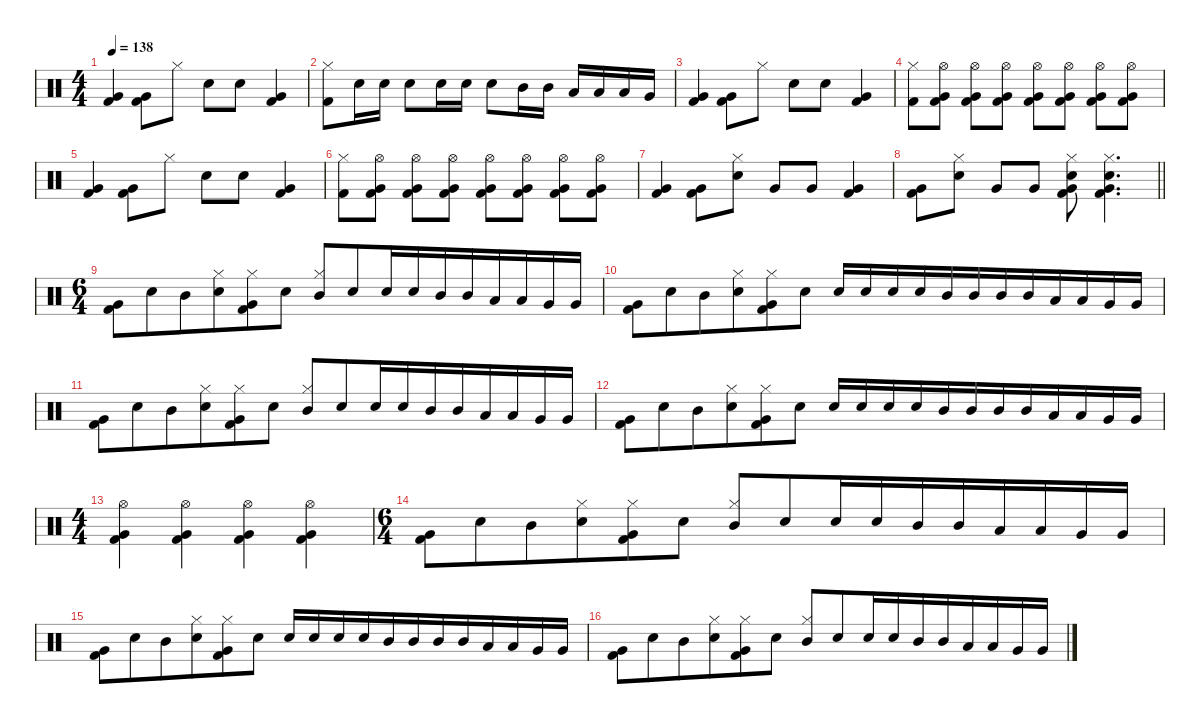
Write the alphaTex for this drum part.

\defaultSystemsLayout 4
\hideDynamics
\bracketExtendMode nobrackets
\singleTrackTrackNamePolicy hidden
\multiTrackTrackNamePolicy hidden
\otherSystemsTrackNameOrientation horizontal
\track ("Drums" "drm.") {instrument percussion}
\staff {score}
\articulation defaults
\ts (4 4)
\tempo 138
\clef neutral
\ks c
("Very Low Tom (hit)" "Kick (hit) 2").4{dy fff beam Up} ("Very Low Tom (hit)" "Kick (hit) 2").8{dy mp beam Down} "Hi-Hat (closed)".8{dy fff beam Down} "Snare (hit) 2".8{dy f beam Down} "Snare (hit) 2".8{dy mp beam Down} ("Very Low Tom (hit)" "Kick (hit) 2").4{beam Up} |
("Hi-Hat (closed)" "Kick (hit) 2").8{beam Down} "Snare (hit) 2".16{dy f beam Down} "Snare (hit) 2".16{beam Down} "Snare (hit) 2".8{beam Down} "Snare (hit) 2".16{beam Down} "Snare (hit) 2".16{beam Down} "Snare (hit) 2".8{beam Down} "Mid Tom (hit)".16{beam Down} "Mid Tom (hit)".16{beam Down} "Low Tom (hit)".16{beam Up} "Low Tom (hit)".16{beam Up} "Low Tom (hit)".16{beam Up} "Very Low Tom (hit)".16{beam Up} |
("Very Low Tom (hit)" "Kick (hit) 2").4{dy fff beam Up} ("Very Low Tom (hit)" "Kick (hit) 2").8{dy mp beam Down} "Hi-Hat (closed)".8{dy fff beam Down} "Snare (hit) 2".8{dy f beam Down} "Snare (hit) 2".8{dy mp beam Down} ("Very Low Tom (hit)" "Kick (hit) 2").4{beam Up} |
("Hi-Hat (closed)" "Kick (hit) 2").8{beam Down} ("Hi-Hat (open)" "Very Low Tom (hit)" "Kick (hit) 2").8{dy f beam Down} ("Hi-Hat (open)" "Very Low Tom (hit)" "Kick (hit) 2").8{beam Down} ("Hi-Hat (open)" "Very Low Tom (hit)" "Kick (hit) 2").8{beam Down} ("Hi-Hat (open)" "Very Low Tom (hit)" "Kick (hit) 2").8{beam Down} ("Hi-Hat (open)" "Very Low Tom (hit)" "Kick (hit) 2").8{beam Down} ("Hi-Hat (open)" "Very Low Tom (hit)" "Kick (hit) 2").8{beam Down} ("Hi-Hat (open)" "Very Low Tom (hit)" "Kick (hit) 2").8{beam Down} |
("Very Low Tom (hit)" "Kick (hit) 2").4{dy fff beam Up} ("Very Low Tom (hit)" "Kick (hit) 2").8{dy mp beam Down} "Hi-Hat (closed)".8{dy fff beam Down} "Snare (hit) 2".8{dy f beam Down} "Snare (hit) 2".8{dy mp beam Down} ("Very Low Tom (hit)" "Kick (hit) 2").4{beam Up} |
("Hi-Hat (closed)" "Kick (hit) 2").8{beam Down} ("Hi-Hat (open)" "Very Low Tom (hit)" "Kick (hit) 2").8{dy f beam Down} ("Hi-Hat (open)" "Very Low Tom (hit)" "Kick (hit) 2").8{beam Down} ("Hi-Hat (open)" "Very Low Tom (hit)" "Kick (hit) 2").8{beam Down} ("Hi-Hat (open)" "Very Low Tom (hit)" "Kick (hit) 2").8{beam Down} ("Hi-Hat (open)" "Very Low Tom (hit)" "Kick (hit) 2").8{beam Down} ("Hi-Hat (open)" "Very Low Tom (hit)" "Kick (hit) 2").8{beam Down} ("Hi-Hat (open)" "Very Low Tom (hit)" "Kick (hit) 2").8{beam Down} |
("Very Low Tom (hit)" "Kick (hit) 2").4{dy fff beam Up} ("Very Low Tom (hit)" "Kick (hit) 2").8{dy mp beam Down} ("Hi-Hat (closed)" "Snare (hit) 2").8{dy f beam Down} "Very Low Tom (hit)".8{beam Up} "Very Low Tom (hit)".8{beam Up} ("Very Low Tom (hit)" "Kick (hit) 2").4{dy mp beam Up} |
\barLineRight lightlight
("Very Low Tom (hit)" "Kick (hit) 2").8{dy f beam Down} ("Hi-Hat (closed)" "Snare (hit) 2").8{beam Down} "Very Low Tom (hit)".8{beam Up} "Very Low Tom (hit)".8{beam Up} ("Hi-Hat (closed)" "Snare (hit) 2" "Very Low Tom (hit)" "Kick (hit) 2").8{beam Down} ("Hi-Hat (closed)" "Snare (hit) 2" "Very Low Tom (hit)" "Kick (hit) 2").4{d beam Down} |
\ts (6 4)
\beaming (8 6 6)
("Very Low Tom (hit)" "Kick (hit) 2").8{dy ff beam Down} "Snare (hit) 2".8{beam Down} "Mid Tom (hit)".8{beam Down} ("Hi-Hat (closed)" "Snare (hit) 2").8{beam Down} ("Hi-Hat (closed)" "Very Low Tom (hit)" "Kick (hit) 2").8{beam Down} "Snare (hit) 2".8{beam Down} ("Hi-Hat (closed)" "Mid Tom (hit)").8{beam Up} "Snare (hit) 2".8{beam Up} "Snare (hit) 2".16{beam Up} "Snare (hit) 2".16{beam Up} "Mid Tom (hit)".16{beam Up} "Mid Tom (hit)".16{beam Up} "Low Tom (hit)".16{beam Up} "Low Tom (hit)".16{beam Up} "Very Low Tom (hit)".16{beam Up} "Very Low Tom (hit)".16{beam Up} |
("Very Low Tom (hit)" "Kick (hit) 2").8{beam Down} "Snare (hit) 2".8{beam Down} "Mid Tom (hit)".8{beam Down} ("Hi-Hat (closed)" "Snare (hit) 2").8{beam Down} ("Hi-Hat (closed)" "Very Low Tom (hit)" "Kick (hit) 2").8{beam Down} "Snare (hit) 2".8{beam Down} "Snare (hit) 2".16{beam Up} "Snare (hit) 2".16{beam Up} "Snare (hit) 2".16{beam Up} "Snare (hit) 2".16{beam Up} "Mid Tom (hit)".16{beam Up} "Mid Tom (hit)".16{beam Up} "Mid Tom (hit)".16{beam Up} "Mid Tom (hit)".16{beam Up} "Low Tom (hit)".16{beam Up} "Low Tom (hit)".16{beam Up} "Very Low Tom (hit)".16{beam Up} "Very Low Tom (hit)".16{beam Up} |
("Very Low Tom (hit)" "Kick (hit) 2").8{beam Down} "Snare (hit) 2".8{beam Down} "Mid Tom (hit)".8{beam Down} ("Hi-Hat (closed)" "Snare (hit) 2").8{beam Down} ("Hi-Hat (closed)" "Very Low Tom (hit)" "Kick (hit) 2").8{beam Down} "Snare (hit) 2".8{beam Down} ("Hi-Hat (closed)" "Mid Tom (hit)").8{beam Up} "Snare (hit) 2".8{beam Up} "Snare (hit) 2".16{beam Up} "Snare (hit) 2".16{beam Up} "Mid Tom (hit)".16{beam Up} "Mid Tom (hit)".16{beam Up} "Low Tom (hit)".16{beam Up} "Low Tom (hit)".16{beam Up} "Very Low Tom (hit)".16{beam Up} "Very Low Tom (hit)".16{beam Up} |
("Very Low Tom (hit)" "Kick (hit) 2").8{beam Down} "Snare (hit) 2".8{beam Down} "Mid Tom (hit)".8{beam Down} ("Hi-Hat (closed)" "Snare (hit) 2").8{beam Down} ("Hi-Hat (closed)" "Very Low Tom (hit)" "Kick (hit) 2").8{beam Down} "Snare (hit) 2".8{beam Down} "Snare (hit) 2".16{beam Up} "Snare (hit) 2".16{beam Up} "Snare (hit) 2".16{beam Up} "Snare (hit) 2".16{beam Up} "Mid Tom (hit)".16{beam Up} "Mid Tom (hit)".16{beam Up} "Mid Tom (hit)".16{beam Up} "Mid Tom (hit)".16{beam Up} "Low Tom (hit)".16{beam Up} "Low Tom (hit)".16{beam Up} "Very Low Tom (hit)".16{beam Up} "Very Low Tom (hit)".16{beam Up} |
\ts (4 4)
\beaming (8 2 2 2 2)
("Hi-Hat (open)" "Very Low Tom (hit)" "Kick (hit) 2").4{beam Down} ("Hi-Hat (open)" "Very Low Tom (hit)" "Kick (hit) 2").4{beam Down} ("Hi-Hat (open)" "Very Low Tom (hit)" "Kick (hit) 2").4{beam Down} ("Hi-Hat (open)" "Very Low Tom (hit)" "Kick (hit) 2").4{beam Down} |
\ts (6 4)
\beaming (8 6 6)
("Very Low Tom (hit)" "Kick (hit) 2").8{beam Down} "Snare (hit) 2".8{beam Down} "Mid Tom (hit)".8{beam Down} ("Hi-Hat (closed)" "Snare (hit) 2").8{beam Down} ("Hi-Hat (closed)" "Very Low Tom (hit)" "Kick (hit) 2").8{beam Down} "Snare (hit) 2".8{beam Down} ("Hi-Hat (closed)" "Mid Tom (hit)").8{beam Up} "Snare (hit) 2".8{beam Up} "Snare (hit) 2".16{beam Up} "Snare (hit) 2".16{beam Up} "Mid Tom (hit)".16{beam Up} "Mid Tom (hit)".16{beam Up} "Low Tom (hit)".16{beam Up} "Low Tom (hit)".16{beam Up} "Very Low Tom (hit)".16{beam Up} "Very Low Tom (hit)".16{beam Up} |
("Very Low Tom (hit)" "Kick (hit) 2").8{beam Down} "Snare (hit) 2".8{beam Down} "Mid Tom (hit)".8{beam Down} ("Hi-Hat (closed)" "Snare (hit) 2").8{beam Down} ("Hi-Hat (closed)" "Very Low Tom (hit)" "Kick (hit) 2").8{beam Down} "Snare (hit) 2".8{beam Down} "Snare (hit) 2".16{beam Up} "Snare (hit) 2".16{beam Up} "Snare (hit) 2".16{beam Up} "Snare (hit) 2".16{beam Up} "Mid Tom (hit)".16{beam Up} "Mid Tom (hit)".16{beam Up} "Mid Tom (hit)".16{beam Up} "Mid Tom (hit)".16{beam Up} "Low Tom (hit)".16{beam Up} "Low Tom (hit)".16{beam Up} "Very Low Tom (hit)".16{beam Up} "Very Low Tom (hit)".16{beam Up} |
("Very Low Tom (hit)" "Kick (hit) 2").8{beam Down} "Snare (hit) 2".8{beam Down} "Mid Tom (hit)".8{beam Down} ("Hi-Hat (closed)" "Snare (hit) 2").8{beam Down} ("Hi-Hat (closed)" "Very Low Tom (hit)" "Kick (hit) 2").8{beam Down} "Snare (hit) 2".8{beam Down} ("Hi-Hat (closed)" "Mid Tom (hit)").8{beam Up} "Snare (hit) 2".8{beam Up} "Snare (hit) 2".16{beam Up} "Snare (hit) 2".16{beam Up} "Mid Tom (hit)".16{beam Up} "Mid Tom (hit)".16{beam Up} "Low Tom (hit)".16{beam Up} "Low Tom (hit)".16{beam Up} "Very Low Tom (hit)".16{beam Up} "Very Low Tom (hit)".16{beam Up}
